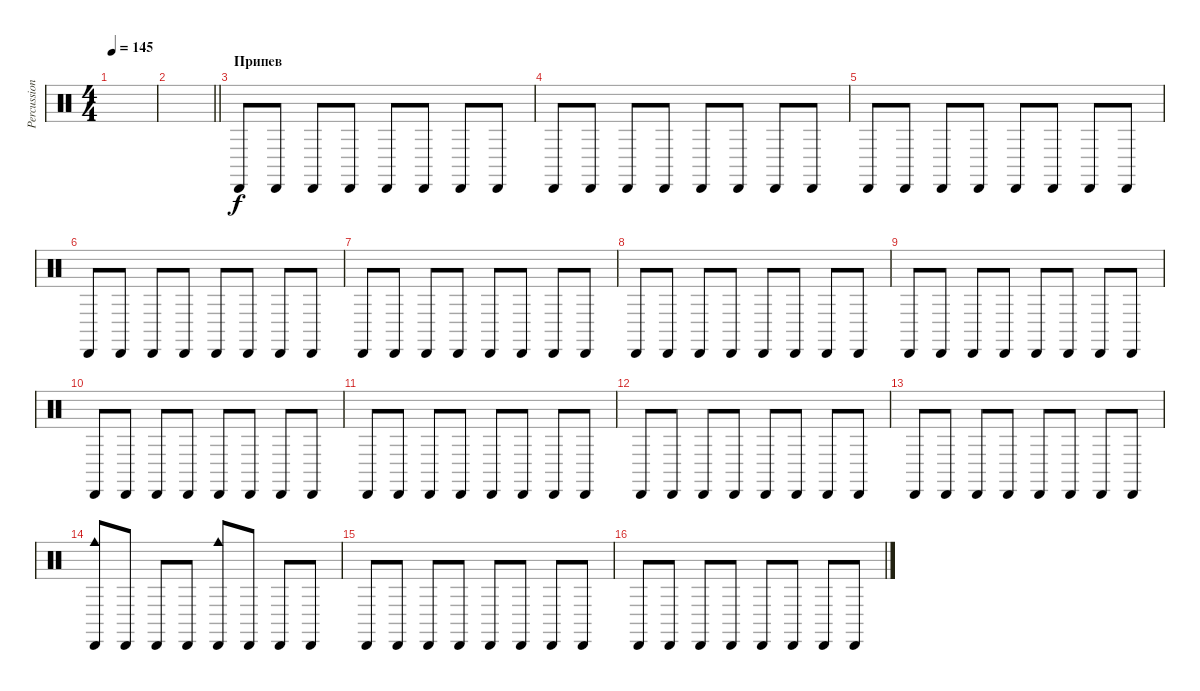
\track ("Percussion" "Percussion") {instrument percussion}
\staff {score}
\articulation defaults
\ts (4 4)
\tempo 145
\clef neutral
\ks c
|
\barLineRight lightlight
|
\section ("" "Припев")
"Cabasa (hit)".8 "Cabasa (hit)".8 "Cabasa (hit)".8 "Cabasa (hit)".8 "Cabasa (hit)".8 "Cabasa (hit)".8 "Cabasa (hit)".8 "Cabasa (hit)".8 |
"Cabasa (hit)".8 "Cabasa (hit)".8 "Cabasa (hit)".8 "Cabasa (hit)".8 "Cabasa (hit)".8 "Cabasa (hit)".8 "Cabasa (hit)".8 "Cabasa (hit)".8 |
"Cabasa (hit)".8 "Cabasa (hit)".8 "Cabasa (hit)".8 "Cabasa (hit)".8 "Cabasa (hit)".8 "Cabasa (hit)".8 "Cabasa (hit)".8 "Cabasa (hit)".8 |
"Cabasa (hit)".8 "Cabasa (hit)".8 "Cabasa (hit)".8 "Cabasa (hit)".8 "Cabasa (hit)".8 "Cabasa (hit)".8 "Cabasa (hit)".8 "Cabasa (hit)".8 |
"Cabasa (hit)".8 "Cabasa (hit)".8 "Cabasa (hit)".8 "Cabasa (hit)".8 "Cabasa (hit)".8 "Cabasa (hit)".8 "Cabasa (hit)".8 "Cabasa (hit)".8 |
"Cabasa (hit)".8 "Cabasa (hit)".8 "Cabasa (hit)".8 "Cabasa (hit)".8 "Cabasa (hit)".8 "Cabasa (hit)".8 "Cabasa (hit)".8 "Cabasa (hit)".8 |
"Cabasa (hit)".8 "Cabasa (hit)".8 "Cabasa (hit)".8 "Cabasa (hit)".8 "Cabasa (hit)".8 "Cabasa (hit)".8 "Cabasa (hit)".8 "Cabasa (hit)".8 |
"Cabasa (hit)".8 "Cabasa (hit)".8 "Cabasa (hit)".8 "Cabasa (hit)".8 "Cabasa (hit)".8 "Cabasa (hit)".8 "Cabasa (hit)".8 "Cabasa (hit)".8 |
"Cabasa (hit)".8 "Cabasa (hit)".8 "Cabasa (hit)".8 "Cabasa (hit)".8 "Cabasa (hit)".8 "Cabasa (hit)".8 "Cabasa (hit)".8 "Cabasa (hit)".8 |
"Cabasa (hit)".8 "Cabasa (hit)".8 "Cabasa (hit)".8 "Cabasa (hit)".8 "Cabasa (hit)".8 "Cabasa (hit)".8 "Cabasa (hit)".8 "Cabasa (hit)".8 |
"Cabasa (hit)".8 "Cabasa (hit)".8 "Cabasa (hit)".8 "Cabasa (hit)".8 "Cabasa (hit)".8 "Cabasa (hit)".8 "Cabasa (hit)".8 "Cabasa (hit)".8 |
("Cabasa (hit)" "Cowbell medium (hit)").8 "Cabasa (hit)".8 "Cabasa (hit)".8 "Cabasa (hit)".8 ("Cabasa (hit)" "Cowbell medium (hit)").8 "Cabasa (hit)".8 "Cabasa (hit)".8 "Cabasa (hit)".8 |
"Cabasa (hit)".8 "Cabasa (hit)".8 "Cabasa (hit)".8 "Cabasa (hit)".8 "Cabasa (hit)".8 "Cabasa (hit)".8 "Cabasa (hit)".8 "Cabasa (hit)".8 |
"Cabasa (hit)".8 "Cabasa (hit)".8 "Cabasa (hit)".8 "Cabasa (hit)".8 "Cabasa (hit)".8 "Cabasa (hit)".8 "Cabasa (hit)".8 "Cabasa (hit)".8
